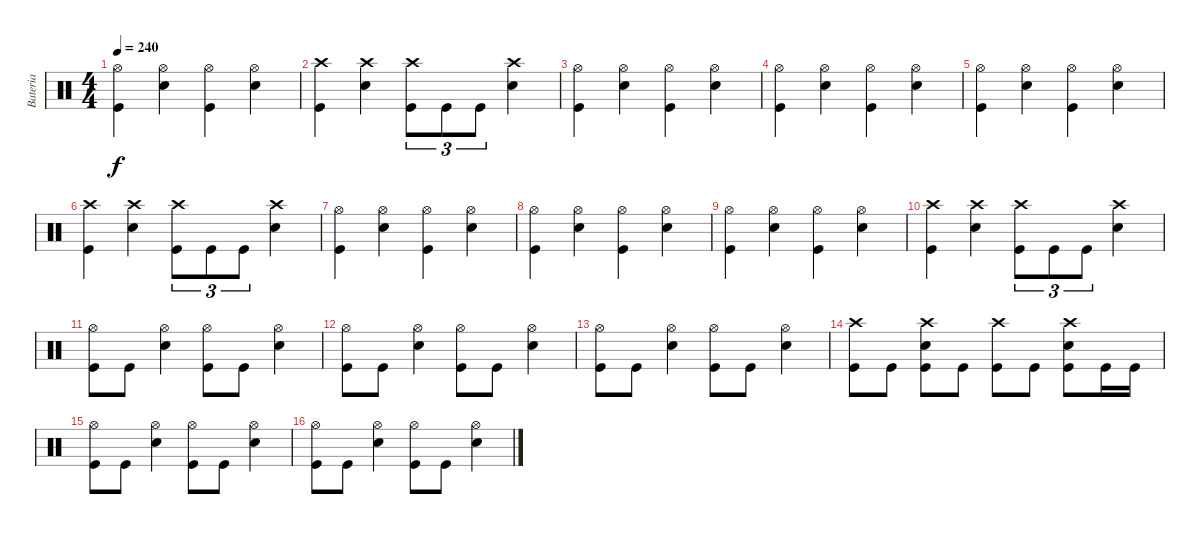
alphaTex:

\track ("Bateria" "Bateria") {instrument percussion}
\staff {score}
\articulation defaults
\ts (4 4)
\tempo 240
\clef neutral
\ks c
("Kick (hit)" "Hi-Hat (open)").4{dy f} ("Electric Snare (hit)" "Hi-Hat (open)").4 ("Kick (hit)" "Hi-Hat (open)").4 ("Electric Snare (hit)" "Hi-Hat (open)").4 |
("Kick (hit)" "Crash high (hit)").4 ("Electric Snare (hit)" "Crash high (hit)").4 ("Kick (hit)" "Crash high (hit)").8{tu (3 2)} "Kick (hit)".8{tu (3 2)} "Kick (hit)".8{tu (3 2)} ("Electric Snare (hit)" "Crash high (hit)").4 |
("Kick (hit)" "Hi-Hat (open)").4 ("Electric Snare (hit)" "Hi-Hat (open)").4 ("Kick (hit)" "Hi-Hat (open)").4 ("Electric Snare (hit)" "Hi-Hat (open)").4 |
("Kick (hit)" "Hi-Hat (open)").4 ("Electric Snare (hit)" "Hi-Hat (open)").4 ("Kick (hit)" "Hi-Hat (open)").4 ("Electric Snare (hit)" "Hi-Hat (open)").4 |
("Kick (hit)" "Hi-Hat (open)").4 ("Electric Snare (hit)" "Hi-Hat (open)").4 ("Kick (hit)" "Hi-Hat (open)").4 ("Electric Snare (hit)" "Hi-Hat (open)").4 |
("Kick (hit)" "Crash high (hit)").4 ("Electric Snare (hit)" "Crash high (hit)").4 ("Kick (hit)" "Crash high (hit)").8{tu (3 2)} "Kick (hit)".8{tu (3 2)} "Kick (hit)".8{tu (3 2)} ("Electric Snare (hit)" "Crash high (hit)").4 |
("Kick (hit)" "Hi-Hat (open)").4 ("Electric Snare (hit)" "Hi-Hat (open)").4 ("Kick (hit)" "Hi-Hat (open)").4 ("Electric Snare (hit)" "Hi-Hat (open)").4 |
("Kick (hit)" "Hi-Hat (open)").4 ("Electric Snare (hit)" "Hi-Hat (open)").4 ("Kick (hit)" "Hi-Hat (open)").4 ("Electric Snare (hit)" "Hi-Hat (open)").4 |
("Kick (hit)" "Hi-Hat (open)").4 ("Electric Snare (hit)" "Hi-Hat (open)").4 ("Kick (hit)" "Hi-Hat (open)").4 ("Electric Snare (hit)" "Hi-Hat (open)").4 |
("Kick (hit)" "Crash high (hit)").4 ("Electric Snare (hit)" "Crash high (hit)").4 ("Kick (hit)" "Crash high (hit)").8{tu (3 2)} "Kick (hit)".8{tu (3 2)} "Kick (hit)".8{tu (3 2)} ("Electric Snare (hit)" "Crash high (hit)").4 |
("Kick (hit)" "Hi-Hat (open)").8 "Kick (hit)".8 ("Electric Snare (hit)" "Hi-Hat (open)").4 ("Kick (hit)" "Hi-Hat (open)").8 "Kick (hit)".8 ("Electric Snare (hit)" "Hi-Hat (open)").4 |
("Kick (hit)" "Hi-Hat (open)").8 "Kick (hit)".8 ("Electric Snare (hit)" "Hi-Hat (open)").4 ("Kick (hit)" "Hi-Hat (open)").8 "Kick (hit)".8 ("Electric Snare (hit)" "Hi-Hat (open)").4 |
("Kick (hit)" "Hi-Hat (open)").8 "Kick (hit)".8 ("Electric Snare (hit)" "Hi-Hat (open)").4 ("Kick (hit)" "Hi-Hat (open)").8 "Kick (hit)".8 ("Electric Snare (hit)" "Hi-Hat (open)").4 |
("Kick (hit)" "Crash high (hit)").8 "Kick (hit)".8 ("Kick (hit)" "Electric Snare (hit)" "Crash high (hit)").8 "Kick (hit)".8 ("Kick (hit)" "Crash high (hit)").8 "Kick (hit)".8 ("Kick (hit)" "Electric Snare (hit)" "Crash high (hit)").8 "Kick (hit)".16 "Kick (hit)".16 |
("Kick (hit)" "Hi-Hat (open)").8 "Kick (hit)".8 ("Electric Snare (hit)" "Hi-Hat (open)").4 ("Kick (hit)" "Hi-Hat (open)").8 "Kick (hit)".8 ("Electric Snare (hit)" "Hi-Hat (open)").4 |
("Kick (hit)" "Hi-Hat (open)").8 "Kick (hit)".8 ("Electric Snare (hit)" "Hi-Hat (open)").4 ("Kick (hit)" "Hi-Hat (open)").8 "Kick (hit)".8 ("Electric Snare (hit)" "Hi-Hat (open)").4
